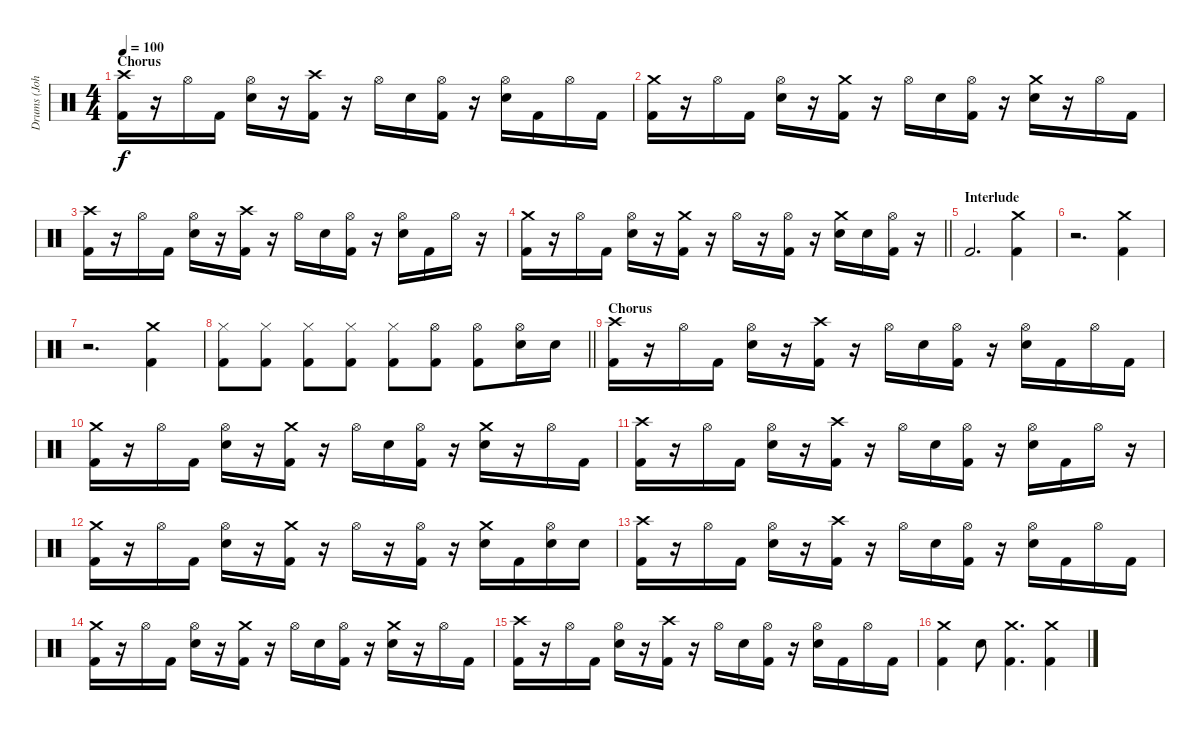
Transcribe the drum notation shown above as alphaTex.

\track ("Drums (John Otto)" "Drums (Joh") {instrument percussion}
\staff {score}
\articulation defaults
\ts (4 4)
\section ("" "Chorus")
\tempo 100
\clef neutral
\ks c
("Crash high (hit)" "Kick (hit) 2").16{dy f} r.16 "Hi-Hat (open)".16 "Kick (hit) 2".16 ("Hi-Hat (open)" "Electric Snare (hit)").16 r.16 ("Crash high (hit)" "Kick (hit) 2").16 r.16 "Hi-Hat (open)".16 "Electric Snare (hit)".16 ("Hi-Hat (open)" "Kick (hit) 2").16 r.16 ("Hi-Hat (open)" "Electric Snare (hit)").16 "Kick (hit) 2".16 "Hi-Hat (open)".16 "Kick (hit) 2".16 |
("Crash medium (hit)" "Kick (hit) 2").16 r.16 "Hi-Hat (open)".16 "Kick (hit) 2".16 ("Hi-Hat (open)" "Electric Snare (hit)").16 r.16 ("Crash medium (hit)" "Kick (hit) 2").16 r.16 "Hi-Hat (open)".16 "Electric Snare (hit)".16 ("Hi-Hat (open)" "Kick (hit) 2").16 r.16 ("Crash medium (hit)" "Electric Snare (hit)").16 r.16 "Hi-Hat (open)".16 "Kick (hit) 2".16 |
("Crash high (hit)" "Kick (hit) 2").16 r.16 "Hi-Hat (open)".16 "Kick (hit) 2".16 ("Hi-Hat (open)" "Electric Snare (hit)").16 r.16 ("Crash high (hit)" "Kick (hit) 2").16 r.16 "Hi-Hat (open)".16 "Electric Snare (hit)".16 ("Hi-Hat (open)" "Kick (hit) 2").16 r.16 ("Hi-Hat (open)" "Electric Snare (hit)").16 "Kick (hit) 2".16 "Hi-Hat (open)".16 r.16 |
\barLineRight lightlight
("Crash medium (hit)" "Kick (hit) 2").16 r.16 "Hi-Hat (open)".16 "Kick (hit) 2".16 ("Hi-Hat (open)" "Electric Snare (hit)").16 r.16 ("Crash medium (hit)" "Kick (hit) 2").16 r.16 "Hi-Hat (open)".16 r.16 ("Hi-Hat (open)" "Kick (hit) 2").16 r.16 ("Crash medium (hit)" "Electric Snare (hit)").16 "Electric Snare (hit)".16 ("Hi-Hat (open)" "Kick (hit) 2").16 r.16 |
\section ("" "Interlude")
"Kick (hit) 2".2{d} ("Crash medium (hit)" "Kick (hit) 2").4 |
r.2{d} ("Crash medium (hit)" "Kick (hit) 2").4 |
r.2{d} ("Crash medium (hit)" "Kick (hit) 2").4 |
\barLineRight lightlight
("Hi-Hat (closed)" "Kick (hit) 2").8 ("Hi-Hat (closed)" "Kick (hit) 2").8 ("Hi-Hat (closed)" "Kick (hit) 2").8 ("Hi-Hat (closed)" "Kick (hit) 2").8 ("Hi-Hat (closed)" "Kick (hit) 2").8 ("Hi-Hat (open)" "Kick (hit) 2").8 ("Hi-Hat (open)" "Kick (hit) 2").8 ("Hi-Hat (open)" "Electric Snare (hit)").16 "Electric Snare (hit)".16 |
\section ("" "Chorus")
("Crash high (hit)" "Kick (hit) 2").16 r.16 "Hi-Hat (open)".16 "Kick (hit) 2".16 ("Hi-Hat (open)" "Electric Snare (hit)").16 r.16 ("Crash high (hit)" "Kick (hit) 2").16 r.16 "Hi-Hat (open)".16 "Electric Snare (hit)".16 ("Hi-Hat (open)" "Kick (hit) 2").16 r.16 ("Hi-Hat (open)" "Electric Snare (hit)").16 "Kick (hit) 2".16 "Hi-Hat (open)".16 "Kick (hit) 2".16 |
("Crash medium (hit)" "Kick (hit) 2").16 r.16 "Hi-Hat (open)".16 "Kick (hit) 2".16 ("Hi-Hat (open)" "Electric Snare (hit)").16 r.16 ("Crash medium (hit)" "Kick (hit) 2").16 r.16 "Hi-Hat (open)".16 "Electric Snare (hit)".16 ("Hi-Hat (open)" "Kick (hit) 2").16 r.16 ("Crash medium (hit)" "Electric Snare (hit)").16 r.16 "Hi-Hat (open)".16 "Kick (hit) 2".16 |
("Crash high (hit)" "Kick (hit) 2").16 r.16 "Hi-Hat (open)".16 "Kick (hit) 2".16 ("Hi-Hat (open)" "Electric Snare (hit)").16 r.16 ("Crash high (hit)" "Kick (hit) 2").16 r.16 "Hi-Hat (open)".16 "Electric Snare (hit)".16 ("Hi-Hat (open)" "Kick (hit) 2").16 r.16 ("Hi-Hat (open)" "Electric Snare (hit)").16 "Kick (hit) 2".16 "Hi-Hat (open)".16 r.16 |
("Crash medium (hit)" "Kick (hit) 2").16 r.16 "Hi-Hat (open)".16 "Kick (hit) 2".16 ("Hi-Hat (open)" "Electric Snare (hit)").16 r.16 ("Crash medium (hit)" "Kick (hit) 2").16 r.16 "Hi-Hat (open)".16 r.16 ("Hi-Hat (open)" "Kick (hit) 2").16 r.16 ("Crash medium (hit)" "Electric Snare (hit)").16 "Kick (hit) 2".16 ("Hi-Hat (open)" "Electric Snare (hit)").16 "Electric Snare (hit)".16 |
("Crash high (hit)" "Kick (hit) 2").16 r.16 "Hi-Hat (open)".16 "Kick (hit) 2".16 ("Hi-Hat (open)" "Electric Snare (hit)").16 r.16 ("Crash high (hit)" "Kick (hit) 2").16 r.16 "Hi-Hat (open)".16 "Electric Snare (hit)".16 ("Hi-Hat (open)" "Kick (hit) 2").16 r.16 ("Hi-Hat (open)" "Electric Snare (hit)").16 "Kick (hit) 2".16 "Hi-Hat (open)".16 "Kick (hit) 2".16 |
("Crash medium (hit)" "Kick (hit) 2").16 r.16 "Hi-Hat (open)".16 "Kick (hit) 2".16 ("Hi-Hat (open)" "Electric Snare (hit)").16 r.16 ("Crash medium (hit)" "Kick (hit) 2").16 r.16 "Hi-Hat (open)".16 "Electric Snare (hit)".16 ("Hi-Hat (open)" "Kick (hit) 2").16 r.16 ("Crash medium (hit)" "Electric Snare (hit)").16 r.16 "Hi-Hat (open)".16 "Kick (hit) 2".16 |
("Crash high (hit)" "Kick (hit) 2").16 r.16 "Hi-Hat (open)".16 "Kick (hit) 2".16 ("Hi-Hat (open)" "Electric Snare (hit)").16 r.16 ("Crash high (hit)" "Kick (hit) 2").16 r.16 "Hi-Hat (open)".16 "Electric Snare (hit)".16 ("Hi-Hat (open)" "Kick (hit) 2").16 r.16 ("Hi-Hat (open)" "Electric Snare (hit)").16 "Kick (hit) 2".16 "Hi-Hat (open)".16 "Kick (hit) 2".16 |
("Crash medium (hit)" "Kick (hit) 2").4 "Electric Snare (hit)".8 ("Crash medium (hit)" "Kick (hit) 2").4{d} ("Crash medium (hit)" "Kick (hit) 2").4
